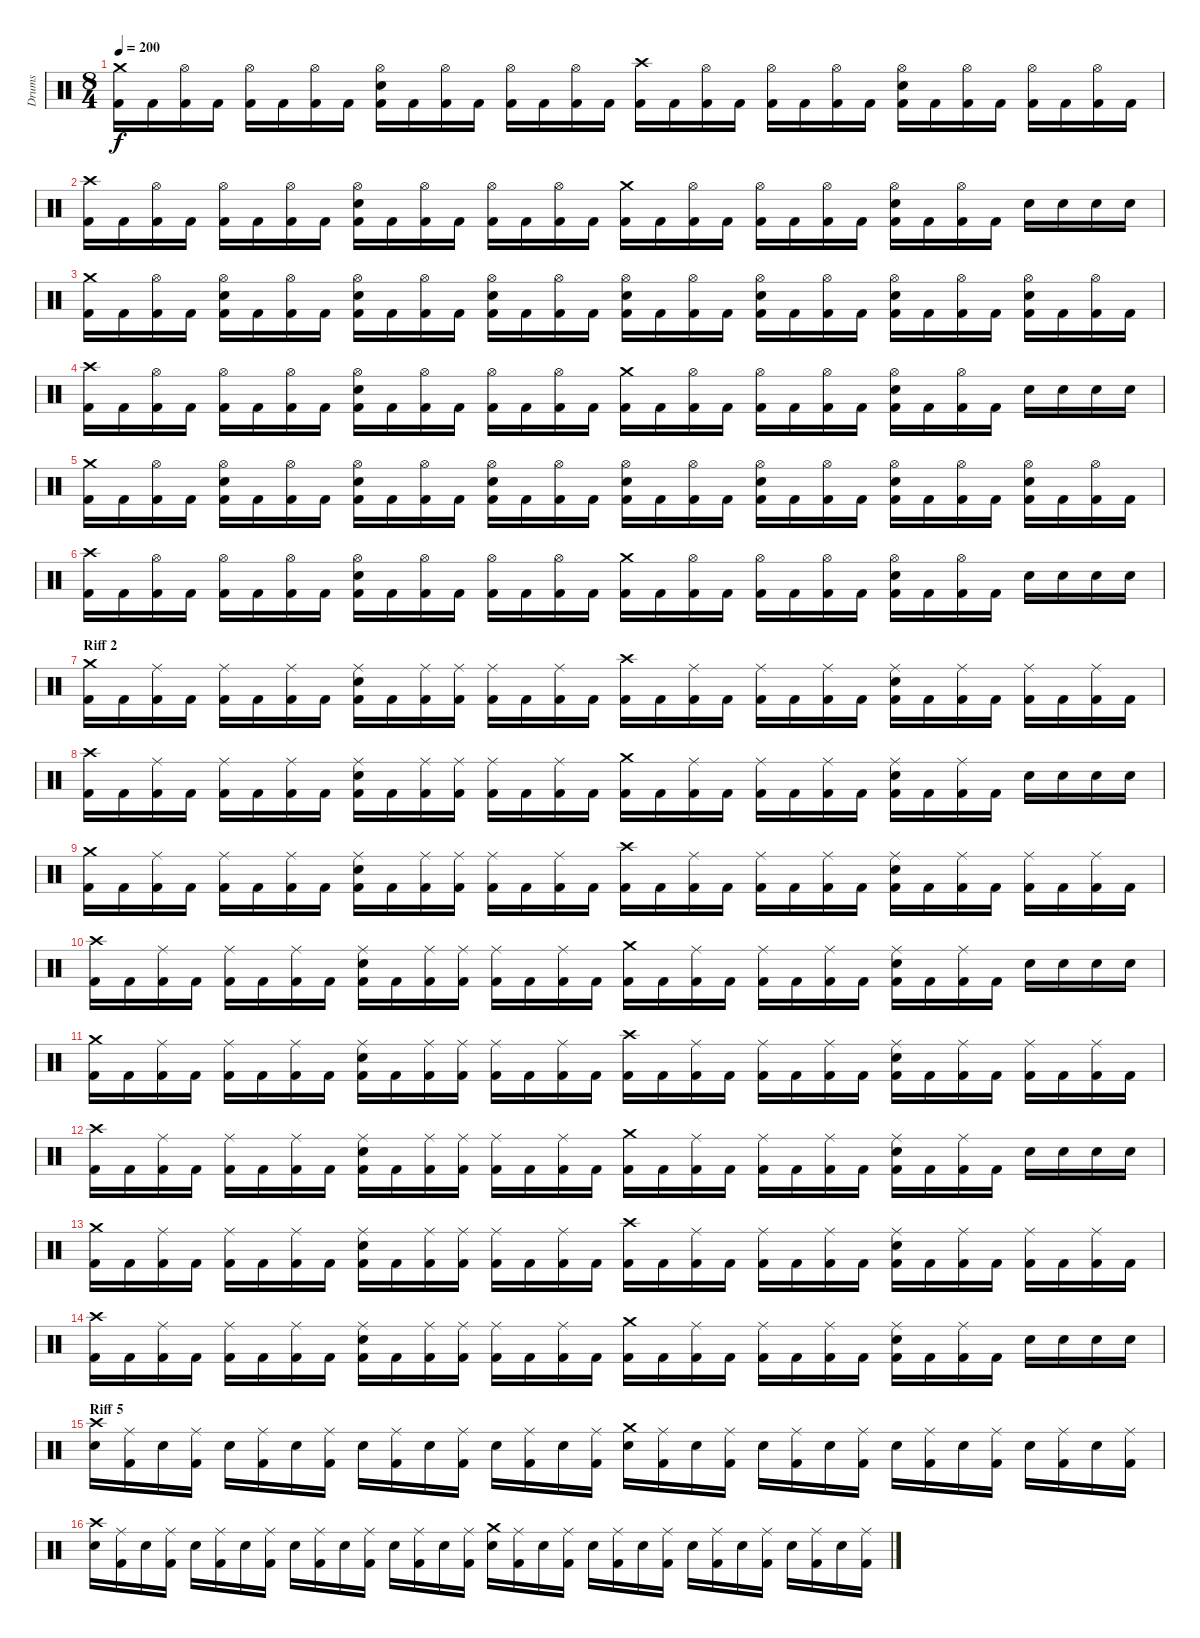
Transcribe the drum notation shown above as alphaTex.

\track ("Drums" "Drums") {instrument percussion}
\staff {score}
\articulation defaults
\ts (8 4)
\tempo 200
\clef neutral
\ks c
("Crash medium (hit)" "Kick (hit) 2").16{dy f} "Kick (hit) 2".16 ("Hi-Hat (open)" "Kick (hit) 2").16 "Kick (hit) 2".16 ("Hi-Hat (open)" "Kick (hit) 2").16 "Kick (hit) 2".16 ("Hi-Hat (open)" "Kick (hit) 2").16 "Kick (hit) 2".16 ("Hi-Hat (open)" "Electric Snare (hit)" "Kick (hit) 2").16 "Kick (hit) 2".16 ("Hi-Hat (open)" "Kick (hit) 2").16 "Kick (hit) 2".16 ("Hi-Hat (open)" "Kick (hit) 2").16 "Kick (hit) 2".16 ("Hi-Hat (open)" "Kick (hit) 2").16 "Kick (hit) 2".16 ("Crash high (hit)" "Kick (hit) 2").16 "Kick (hit) 2".16 ("Hi-Hat (open)" "Kick (hit) 2").16 "Kick (hit) 2".16 ("Hi-Hat (open)" "Kick (hit) 2").16 "Kick (hit) 2".16 ("Hi-Hat (open)" "Kick (hit) 2").16 "Kick (hit) 2".16 ("Hi-Hat (open)" "Electric Snare (hit)" "Kick (hit) 2").16 "Kick (hit) 2".16 ("Hi-Hat (open)" "Kick (hit) 2").16 "Kick (hit) 2".16 ("Hi-Hat (open)" "Kick (hit) 2").16 "Kick (hit) 2".16 ("Hi-Hat (open)" "Kick (hit) 2").16 "Kick (hit) 2".16 |
("Crash high (hit)" "Kick (hit) 2").16 "Kick (hit) 2".16 ("Hi-Hat (open)" "Kick (hit) 2").16 "Kick (hit) 2".16 ("Hi-Hat (open)" "Kick (hit) 2").16 "Kick (hit) 2".16 ("Hi-Hat (open)" "Kick (hit) 2").16 "Kick (hit) 2".16 ("Hi-Hat (open)" "Electric Snare (hit)" "Kick (hit) 2").16 "Kick (hit) 2".16 ("Hi-Hat (open)" "Kick (hit) 2").16 "Kick (hit) 2".16 ("Hi-Hat (open)" "Kick (hit) 2").16 "Kick (hit) 2".16 ("Hi-Hat (open)" "Kick (hit) 2").16 "Kick (hit) 2".16 ("Crash medium (hit)" "Kick (hit) 2").16 "Kick (hit) 2".16 ("Hi-Hat (open)" "Kick (hit) 2").16 "Kick (hit) 2".16 ("Hi-Hat (open)" "Kick (hit) 2").16 "Kick (hit) 2".16 ("Hi-Hat (open)" "Kick (hit) 2").16 "Kick (hit) 2".16 ("Hi-Hat (open)" "Electric Snare (hit)" "Kick (hit) 2").16 "Kick (hit) 2".16 ("Hi-Hat (open)" "Kick (hit) 2").16 "Kick (hit) 2".16 "Electric Snare (hit)".16 "Electric Snare (hit)".16 "Electric Snare (hit)".16 "Electric Snare (hit)".16 |
("Crash medium (hit)" "Kick (hit) 2").16 "Kick (hit) 2".16 ("Hi-Hat (open)" "Kick (hit) 2").16 "Kick (hit) 2".16 ("Hi-Hat (open)" "Electric Snare (hit)" "Kick (hit) 2").16 "Kick (hit) 2".16 ("Hi-Hat (open)" "Kick (hit) 2").16 "Kick (hit) 2".16 ("Hi-Hat (open)" "Electric Snare (hit)" "Kick (hit) 2").16 "Kick (hit) 2".16 ("Hi-Hat (open)" "Kick (hit) 2").16 "Kick (hit) 2".16 ("Hi-Hat (open)" "Electric Snare (hit)" "Kick (hit) 2").16 "Kick (hit) 2".16 ("Hi-Hat (open)" "Kick (hit) 2").16 "Kick (hit) 2".16 ("Hi-Hat (open)" "Electric Snare (hit)" "Kick (hit) 2").16 "Kick (hit) 2".16 ("Hi-Hat (open)" "Kick (hit) 2").16 "Kick (hit) 2".16 ("Hi-Hat (open)" "Electric Snare (hit)" "Kick (hit) 2").16 "Kick (hit) 2".16 ("Hi-Hat (open)" "Kick (hit) 2").16 "Kick (hit) 2".16 ("Hi-Hat (open)" "Electric Snare (hit)" "Kick (hit) 2").16 "Kick (hit) 2".16 ("Hi-Hat (open)" "Kick (hit) 2").16 "Kick (hit) 2".16 ("Hi-Hat (open)" "Electric Snare (hit)" "Kick (hit) 2").16 "Kick (hit) 2".16 ("Hi-Hat (open)" "Kick (hit) 2").16 "Kick (hit) 2".16 |
("Crash high (hit)" "Kick (hit) 2").16 "Kick (hit) 2".16 ("Hi-Hat (open)" "Kick (hit) 2").16 "Kick (hit) 2".16 ("Hi-Hat (open)" "Kick (hit) 2").16 "Kick (hit) 2".16 ("Hi-Hat (open)" "Kick (hit) 2").16 "Kick (hit) 2".16 ("Hi-Hat (open)" "Electric Snare (hit)" "Kick (hit) 2").16 "Kick (hit) 2".16 ("Hi-Hat (open)" "Kick (hit) 2").16 "Kick (hit) 2".16 ("Hi-Hat (open)" "Kick (hit) 2").16 "Kick (hit) 2".16 ("Hi-Hat (open)" "Kick (hit) 2").16 "Kick (hit) 2".16 ("Crash medium (hit)" "Kick (hit) 2").16 "Kick (hit) 2".16 ("Hi-Hat (open)" "Kick (hit) 2").16 "Kick (hit) 2".16 ("Hi-Hat (open)" "Kick (hit) 2").16 "Kick (hit) 2".16 ("Hi-Hat (open)" "Kick (hit) 2").16 "Kick (hit) 2".16 ("Hi-Hat (open)" "Electric Snare (hit)" "Kick (hit) 2").16 "Kick (hit) 2".16 ("Hi-Hat (open)" "Kick (hit) 2").16 "Kick (hit) 2".16 "Electric Snare (hit)".16 "Electric Snare (hit)".16 "Electric Snare (hit)".16 "Electric Snare (hit)".16 |
("Crash medium (hit)" "Kick (hit) 2").16 "Kick (hit) 2".16 ("Hi-Hat (open)" "Kick (hit) 2").16 "Kick (hit) 2".16 ("Hi-Hat (open)" "Electric Snare (hit)" "Kick (hit) 2").16 "Kick (hit) 2".16 ("Hi-Hat (open)" "Kick (hit) 2").16 "Kick (hit) 2".16 ("Hi-Hat (open)" "Electric Snare (hit)" "Kick (hit) 2").16 "Kick (hit) 2".16 ("Hi-Hat (open)" "Kick (hit) 2").16 "Kick (hit) 2".16 ("Hi-Hat (open)" "Electric Snare (hit)" "Kick (hit) 2").16 "Kick (hit) 2".16 ("Hi-Hat (open)" "Kick (hit) 2").16 "Kick (hit) 2".16 ("Hi-Hat (open)" "Electric Snare (hit)" "Kick (hit) 2").16 "Kick (hit) 2".16 ("Hi-Hat (open)" "Kick (hit) 2").16 "Kick (hit) 2".16 ("Hi-Hat (open)" "Electric Snare (hit)" "Kick (hit) 2").16 "Kick (hit) 2".16 ("Hi-Hat (open)" "Kick (hit) 2").16 "Kick (hit) 2".16 ("Hi-Hat (open)" "Electric Snare (hit)" "Kick (hit) 2").16 "Kick (hit) 2".16 ("Hi-Hat (open)" "Kick (hit) 2").16 "Kick (hit) 2".16 ("Hi-Hat (open)" "Electric Snare (hit)" "Kick (hit) 2").16 "Kick (hit) 2".16 ("Hi-Hat (open)" "Kick (hit) 2").16 "Kick (hit) 2".16 |
("Crash high (hit)" "Kick (hit) 2").16 "Kick (hit) 2".16 ("Hi-Hat (open)" "Kick (hit) 2").16 "Kick (hit) 2".16 ("Hi-Hat (open)" "Kick (hit) 2").16 "Kick (hit) 2".16 ("Hi-Hat (open)" "Kick (hit) 2").16 "Kick (hit) 2".16 ("Hi-Hat (open)" "Electric Snare (hit)" "Kick (hit) 2").16 "Kick (hit) 2".16 ("Hi-Hat (open)" "Kick (hit) 2").16 "Kick (hit) 2".16 ("Hi-Hat (open)" "Kick (hit) 2").16 "Kick (hit) 2".16 ("Hi-Hat (open)" "Kick (hit) 2").16 "Kick (hit) 2".16 ("Crash medium (hit)" "Kick (hit) 2").16 "Kick (hit) 2".16 ("Hi-Hat (open)" "Kick (hit) 2").16 "Kick (hit) 2".16 ("Hi-Hat (open)" "Kick (hit) 2").16 "Kick (hit) 2".16 ("Hi-Hat (open)" "Kick (hit) 2").16 "Kick (hit) 2".16 ("Hi-Hat (open)" "Electric Snare (hit)" "Kick (hit) 2").16 "Kick (hit) 2".16 ("Hi-Hat (open)" "Kick (hit) 2").16 "Kick (hit) 2".16 "Electric Snare (hit)".16 "Electric Snare (hit)".16 "Electric Snare (hit)".16 "Electric Snare (hit)".16 |
\section ("" "Riff 2")
("Crash medium (hit)" "Kick (hit) 2").16 "Kick (hit) 2".16 ("Ride (middle)" "Kick (hit) 2").16 "Kick (hit) 2".16 ("Ride (middle)" "Kick (hit) 2").16 "Kick (hit) 2".16 ("Ride (middle)" "Kick (hit) 2").16 "Kick (hit) 2".16 ("Ride (middle)" "Electric Snare (hit)" "Kick (hit) 2").16 "Kick (hit) 2".16 ("Ride (middle)" "Kick (hit) 2").16 ("Ride (middle)" "Kick (hit) 2").16 ("Ride (middle)" "Kick (hit) 2").16 "Kick (hit) 2".16 ("Ride (middle)" "Kick (hit) 2").16 "Kick (hit) 2".16 ("Crash high (hit)" "Kick (hit) 2").16 "Kick (hit) 2".16 ("Ride (middle)" "Kick (hit) 2").16 "Kick (hit) 2".16 ("Ride (middle)" "Kick (hit) 2").16 "Kick (hit) 2".16 ("Ride (middle)" "Kick (hit) 2").16 "Kick (hit) 2".16 ("Ride (middle)" "Electric Snare (hit)" "Kick (hit) 2").16 "Kick (hit) 2".16 ("Ride (middle)" "Kick (hit) 2").16 "Kick (hit) 2".16 ("Ride (middle)" "Kick (hit) 2").16 "Kick (hit) 2".16 ("Ride (middle)" "Kick (hit) 2").16 "Kick (hit) 2".16 |
("Crash high (hit)" "Kick (hit) 2").16 "Kick (hit) 2".16 ("Ride (middle)" "Kick (hit) 2").16 "Kick (hit) 2".16 ("Ride (middle)" "Kick (hit) 2").16 "Kick (hit) 2".16 ("Ride (middle)" "Kick (hit) 2").16 "Kick (hit) 2".16 ("Ride (middle)" "Electric Snare (hit)" "Kick (hit) 2").16 "Kick (hit) 2".16 ("Ride (middle)" "Kick (hit) 2").16 ("Ride (middle)" "Kick (hit) 2").16 ("Ride (middle)" "Kick (hit) 2").16 "Kick (hit) 2".16 ("Ride (middle)" "Kick (hit) 2").16 "Kick (hit) 2".16 ("Crash medium (hit)" "Kick (hit) 2").16 "Kick (hit) 2".16 ("Ride (middle)" "Kick (hit) 2").16 "Kick (hit) 2".16 ("Ride (middle)" "Kick (hit) 2").16 "Kick (hit) 2".16 ("Ride (middle)" "Kick (hit) 2").16 "Kick (hit) 2".16 ("Ride (middle)" "Electric Snare (hit)" "Kick (hit) 2").16 "Kick (hit) 2".16 ("Ride (middle)" "Kick (hit) 2").16 "Kick (hit) 2".16 "Electric Snare (hit)".16 "Electric Snare (hit)".16 "Electric Snare (hit)".16 "Electric Snare (hit)".16 |
("Crash medium (hit)" "Kick (hit) 2").16 "Kick (hit) 2".16 ("Ride (middle)" "Kick (hit) 2").16 "Kick (hit) 2".16 ("Ride (middle)" "Kick (hit) 2").16 "Kick (hit) 2".16 ("Ride (middle)" "Kick (hit) 2").16 "Kick (hit) 2".16 ("Ride (middle)" "Electric Snare (hit)" "Kick (hit) 2").16 "Kick (hit) 2".16 ("Ride (middle)" "Kick (hit) 2").16 ("Ride (middle)" "Kick (hit) 2").16 ("Ride (middle)" "Kick (hit) 2").16 "Kick (hit) 2".16 ("Ride (middle)" "Kick (hit) 2").16 "Kick (hit) 2".16 ("Crash high (hit)" "Kick (hit) 2").16 "Kick (hit) 2".16 ("Ride (middle)" "Kick (hit) 2").16 "Kick (hit) 2".16 ("Ride (middle)" "Kick (hit) 2").16 "Kick (hit) 2".16 ("Ride (middle)" "Kick (hit) 2").16 "Kick (hit) 2".16 ("Ride (middle)" "Electric Snare (hit)" "Kick (hit) 2").16 "Kick (hit) 2".16 ("Ride (middle)" "Kick (hit) 2").16 "Kick (hit) 2".16 ("Ride (middle)" "Kick (hit) 2").16 "Kick (hit) 2".16 ("Ride (middle)" "Kick (hit) 2").16 "Kick (hit) 2".16 |
("Crash high (hit)" "Kick (hit) 2").16 "Kick (hit) 2".16 ("Ride (middle)" "Kick (hit) 2").16 "Kick (hit) 2".16 ("Ride (middle)" "Kick (hit) 2").16 "Kick (hit) 2".16 ("Ride (middle)" "Kick (hit) 2").16 "Kick (hit) 2".16 ("Ride (middle)" "Electric Snare (hit)" "Kick (hit) 2").16 "Kick (hit) 2".16 ("Ride (middle)" "Kick (hit) 2").16 ("Ride (middle)" "Kick (hit) 2").16 ("Ride (middle)" "Kick (hit) 2").16 "Kick (hit) 2".16 ("Ride (middle)" "Kick (hit) 2").16 "Kick (hit) 2".16 ("Crash medium (hit)" "Kick (hit) 2").16 "Kick (hit) 2".16 ("Ride (middle)" "Kick (hit) 2").16 "Kick (hit) 2".16 ("Ride (middle)" "Kick (hit) 2").16 "Kick (hit) 2".16 ("Ride (middle)" "Kick (hit) 2").16 "Kick (hit) 2".16 ("Ride (middle)" "Electric Snare (hit)" "Kick (hit) 2").16 "Kick (hit) 2".16 ("Ride (middle)" "Kick (hit) 2").16 "Kick (hit) 2".16 "Electric Snare (hit)".16 "Electric Snare (hit)".16 "Electric Snare (hit)".16 "Electric Snare (hit)".16 |
("Crash medium (hit)" "Kick (hit) 2").16 "Kick (hit) 2".16 ("Ride (middle)" "Kick (hit) 2").16 "Kick (hit) 2".16 ("Ride (middle)" "Kick (hit) 2").16 "Kick (hit) 2".16 ("Ride (middle)" "Kick (hit) 2").16 "Kick (hit) 2".16 ("Ride (middle)" "Electric Snare (hit)" "Kick (hit) 2").16 "Kick (hit) 2".16 ("Ride (middle)" "Kick (hit) 2").16 ("Ride (middle)" "Kick (hit) 2").16 ("Ride (middle)" "Kick (hit) 2").16 "Kick (hit) 2".16 ("Ride (middle)" "Kick (hit) 2").16 "Kick (hit) 2".16 ("Crash high (hit)" "Kick (hit) 2").16 "Kick (hit) 2".16 ("Ride (middle)" "Kick (hit) 2").16 "Kick (hit) 2".16 ("Ride (middle)" "Kick (hit) 2").16 "Kick (hit) 2".16 ("Ride (middle)" "Kick (hit) 2").16 "Kick (hit) 2".16 ("Ride (middle)" "Electric Snare (hit)" "Kick (hit) 2").16 "Kick (hit) 2".16 ("Ride (middle)" "Kick (hit) 2").16 "Kick (hit) 2".16 ("Ride (middle)" "Kick (hit) 2").16 "Kick (hit) 2".16 ("Ride (middle)" "Kick (hit) 2").16 "Kick (hit) 2".16 |
("Crash high (hit)" "Kick (hit) 2").16 "Kick (hit) 2".16 ("Ride (middle)" "Kick (hit) 2").16 "Kick (hit) 2".16 ("Ride (middle)" "Kick (hit) 2").16 "Kick (hit) 2".16 ("Ride (middle)" "Kick (hit) 2").16 "Kick (hit) 2".16 ("Ride (middle)" "Electric Snare (hit)" "Kick (hit) 2").16 "Kick (hit) 2".16 ("Ride (middle)" "Kick (hit) 2").16 ("Ride (middle)" "Kick (hit) 2").16 ("Ride (middle)" "Kick (hit) 2").16 "Kick (hit) 2".16 ("Ride (middle)" "Kick (hit) 2").16 "Kick (hit) 2".16 ("Crash medium (hit)" "Kick (hit) 2").16 "Kick (hit) 2".16 ("Ride (middle)" "Kick (hit) 2").16 "Kick (hit) 2".16 ("Ride (middle)" "Kick (hit) 2").16 "Kick (hit) 2".16 ("Ride (middle)" "Kick (hit) 2").16 "Kick (hit) 2".16 ("Ride (middle)" "Electric Snare (hit)" "Kick (hit) 2").16 "Kick (hit) 2".16 ("Ride (middle)" "Kick (hit) 2").16 "Kick (hit) 2".16 "Electric Snare (hit)".16 "Electric Snare (hit)".16 "Electric Snare (hit)".16 "Electric Snare (hit)".16 |
("Crash medium (hit)" "Kick (hit) 2").16 "Kick (hit) 2".16 ("Ride (middle)" "Kick (hit) 2").16 "Kick (hit) 2".16 ("Ride (middle)" "Kick (hit) 2").16 "Kick (hit) 2".16 ("Ride (middle)" "Kick (hit) 2").16 "Kick (hit) 2".16 ("Ride (middle)" "Electric Snare (hit)" "Kick (hit) 2").16 "Kick (hit) 2".16 ("Ride (middle)" "Kick (hit) 2").16 ("Ride (middle)" "Kick (hit) 2").16 ("Ride (middle)" "Kick (hit) 2").16 "Kick (hit) 2".16 ("Ride (middle)" "Kick (hit) 2").16 "Kick (hit) 2".16 ("Crash high (hit)" "Kick (hit) 2").16 "Kick (hit) 2".16 ("Ride (middle)" "Kick (hit) 2").16 "Kick (hit) 2".16 ("Ride (middle)" "Kick (hit) 2").16 "Kick (hit) 2".16 ("Ride (middle)" "Kick (hit) 2").16 "Kick (hit) 2".16 ("Ride (middle)" "Electric Snare (hit)" "Kick (hit) 2").16 "Kick (hit) 2".16 ("Ride (middle)" "Kick (hit) 2").16 "Kick (hit) 2".16 ("Ride (middle)" "Kick (hit) 2").16 "Kick (hit) 2".16 ("Ride (middle)" "Kick (hit) 2").16 "Kick (hit) 2".16 |
("Crash high (hit)" "Kick (hit) 2").16 "Kick (hit) 2".16 ("Ride (middle)" "Kick (hit) 2").16 "Kick (hit) 2".16 ("Ride (middle)" "Kick (hit) 2").16 "Kick (hit) 2".16 ("Ride (middle)" "Kick (hit) 2").16 "Kick (hit) 2".16 ("Ride (middle)" "Electric Snare (hit)" "Kick (hit) 2").16 "Kick (hit) 2".16 ("Ride (middle)" "Kick (hit) 2").16 ("Ride (middle)" "Kick (hit) 2").16 ("Ride (middle)" "Kick (hit) 2").16 "Kick (hit) 2".16 ("Ride (middle)" "Kick (hit) 2").16 "Kick (hit) 2".16 ("Crash medium (hit)" "Kick (hit) 2").16 "Kick (hit) 2".16 ("Ride (middle)" "Kick (hit) 2").16 "Kick (hit) 2".16 ("Ride (middle)" "Kick (hit) 2").16 "Kick (hit) 2".16 ("Ride (middle)" "Kick (hit) 2").16 "Kick (hit) 2".16 ("Ride (middle)" "Electric Snare (hit)" "Kick (hit) 2").16 "Kick (hit) 2".16 ("Ride (middle)" "Kick (hit) 2").16 "Kick (hit) 2".16 "Electric Snare (hit)".16 "Electric Snare (hit)".16 "Electric Snare (hit)".16 "Electric Snare (hit)".16 |
\section ("" "Riff 5")
("Crash high (hit)" "Electric Snare (hit)").16 ("Ride (middle)" "Kick (hit) 2").16 "Electric Snare (hit)".16 ("Ride (middle)" "Kick (hit) 2").16 "Electric Snare (hit)".16 ("Ride (middle)" "Kick (hit) 2").16 "Electric Snare (hit)".16 ("Ride (middle)" "Kick (hit) 2").16 "Electric Snare (hit)".16 ("Ride (middle)" "Kick (hit) 2").16 "Electric Snare (hit)".16 ("Ride (middle)" "Kick (hit) 2").16 "Electric Snare (hit)".16 ("Ride (middle)" "Kick (hit) 2").16 "Electric Snare (hit)".16 ("Ride (middle)" "Kick (hit) 2").16 ("Crash medium (hit)" "Electric Snare (hit)").16 ("Ride (middle)" "Kick (hit) 2").16 "Electric Snare (hit)".16 ("Ride (middle)" "Kick (hit) 2").16 "Electric Snare (hit)".16 ("Ride (middle)" "Kick (hit) 2").16 "Electric Snare (hit)".16 ("Ride (middle)" "Kick (hit) 2").16 "Electric Snare (hit)".16 ("Ride (middle)" "Kick (hit) 2").16 "Electric Snare (hit)".16 ("Ride (middle)" "Kick (hit) 2").16 "Electric Snare (hit)".16 ("Ride (middle)" "Kick (hit) 2").16 "Electric Snare (hit)".16 ("Ride (middle)" "Kick (hit) 2").16 |
("Crash high (hit)" "Electric Snare (hit)").16 ("Ride (middle)" "Kick (hit) 2").16 "Electric Snare (hit)".16 ("Ride (middle)" "Kick (hit) 2").16 "Electric Snare (hit)".16 ("Ride (middle)" "Kick (hit) 2").16 "Electric Snare (hit)".16 ("Ride (middle)" "Kick (hit) 2").16 "Electric Snare (hit)".16 ("Ride (middle)" "Kick (hit) 2").16 "Electric Snare (hit)".16 ("Ride (middle)" "Kick (hit) 2").16 "Electric Snare (hit)".16 ("Ride (middle)" "Kick (hit) 2").16 "Electric Snare (hit)".16 ("Ride (middle)" "Kick (hit) 2").16 ("Crash medium (hit)" "Electric Snare (hit)").16 ("Ride (middle)" "Kick (hit) 2").16 "Electric Snare (hit)".16 ("Ride (middle)" "Kick (hit) 2").16 "Electric Snare (hit)".16 ("Ride (middle)" "Kick (hit) 2").16 "Electric Snare (hit)".16 ("Ride (middle)" "Kick (hit) 2").16 "Electric Snare (hit)".16 ("Ride (middle)" "Kick (hit) 2").16 "Electric Snare (hit)".16 ("Ride (middle)" "Kick (hit) 2").16 "Electric Snare (hit)".16 ("Ride (middle)" "Kick (hit) 2").16 "Electric Snare (hit)".16 ("Ride (middle)" "Kick (hit) 2").16
